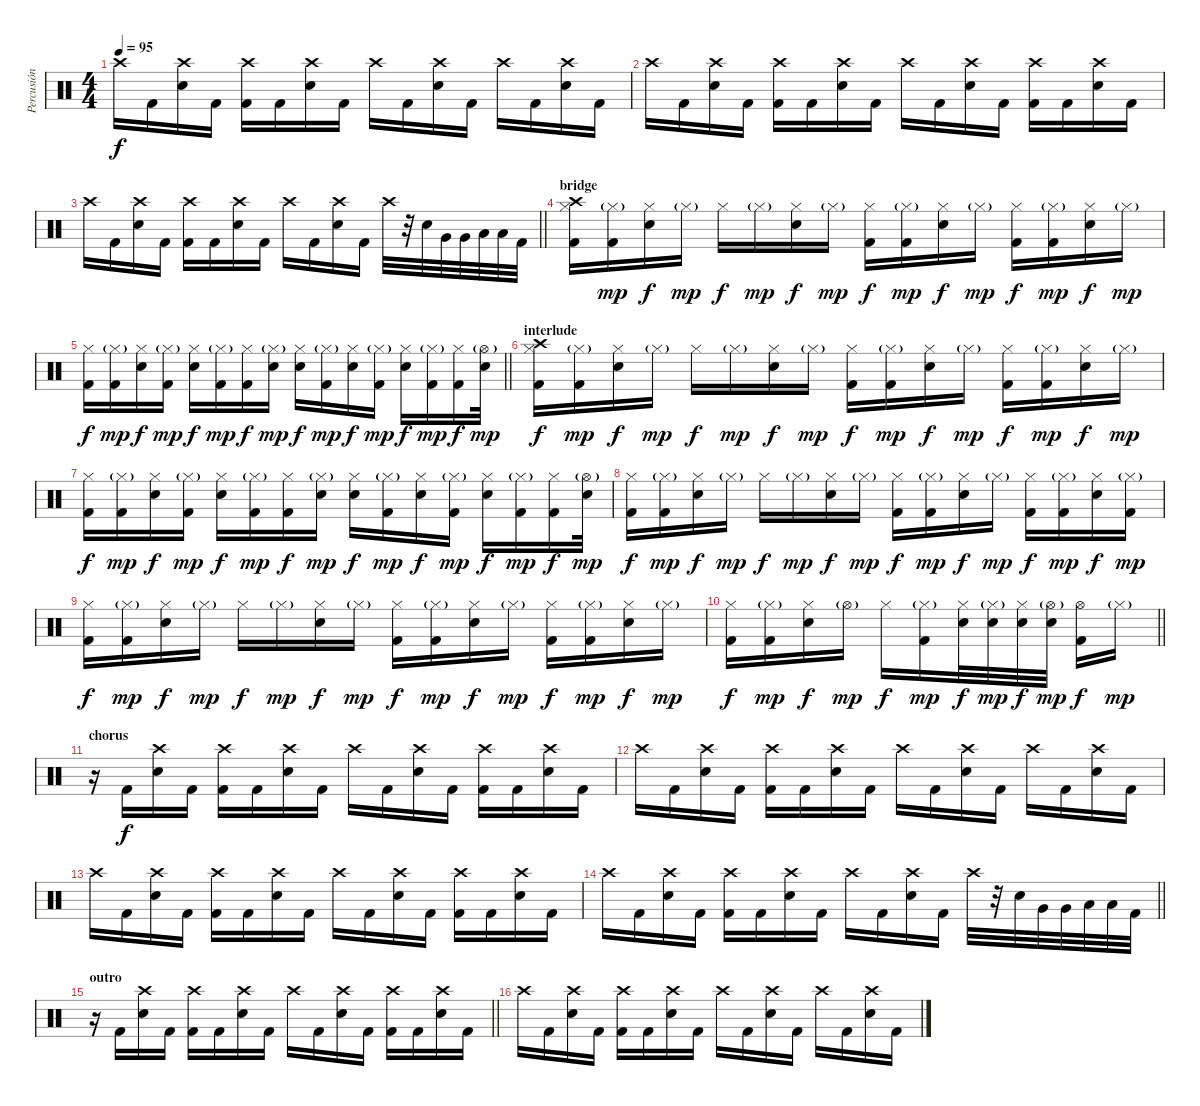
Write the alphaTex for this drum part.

\track ("Percusión" "Percusión") {instrument percussion}
\staff {score}
\articulation defaults
\ts (4 4)
\tempo 95
\clef neutral
\ks c "Crash high (hit)".16{dy f} "Kick (hit) 2".16
("Crash high (hit)" "Electric Snare (hit)").16 "Kick (hit) 2".16 ("Crash high (hit)" "Kick (hit) 2").16 "Kick (hit) 2".16 ("Crash high (hit)" "Electric Snare (hit)").16 "Kick (hit) 2".16 "Crash high (hit)".16 "Kick (hit) 2".16 ("Crash high (hit)" "Electric Snare (hit)").16 "Kick (hit) 2".16 "Crash high (hit)".16 "Kick (hit) 2".16 ("Crash high (hit)" "Electric Snare (hit)").16 "Kick (hit) 2".16 |
"Crash high (hit)".16 "Kick (hit) 2".16 ("Crash high (hit)" "Electric Snare (hit)").16 "Kick (hit) 2".16 ("Crash high (hit)" "Kick (hit) 2").16 "Kick (hit) 2".16 ("Crash high (hit)" "Electric Snare (hit)").16 "Kick (hit) 2".16 "Crash high (hit)".16 "Kick (hit) 2".16 ("Crash high (hit)" "Electric Snare (hit)").16 "Kick (hit) 2".16 ("Crash high (hit)" "Kick (hit) 2").16 "Kick (hit) 2".16 ("Crash high (hit)" "Electric Snare (hit)").16 "Kick (hit) 2".16 |
\barLineRight lightlight "Crash high (hit)".16 "Kick (hit) 2".16
("Crash high (hit)" "Electric Snare (hit)").16 "Kick (hit) 2".16 ("Crash high (hit)" "Kick (hit) 2").16 "Kick (hit) 2".16 ("Crash high (hit)" "Electric Snare (hit)").16 "Kick (hit) 2".16 "Crash high (hit)".16 "Kick (hit) 2".16 ("Crash high (hit)" "Electric Snare (hit)").16 "Kick (hit) 2".16 "Crash high (hit)".32 r.32 "Electric Snare (hit)".32 "Very Low Tom (hit)".32 "Very Low Tom (hit)".32 "Low Floor Tom (hit)".32 "Low Floor Tom (hit)".32 "Kick (hit) 2".32 |
\section ("" "bridge")
("Crash high (hit)" "Hi-Hat (closed)" "Kick (hit) 2").16 ("Hi-Hat (closed)"{g} "Kick (hit) 2").16{dy mp} ("Hi-Hat (closed)" "Electric Snare (hit)").16{dy f} "Hi-Hat (closed)"{g}.16{dy mp} "Hi-Hat (closed)".16{dy f} "Hi-Hat (closed)"{g}.16{dy mp} ("Hi-Hat (closed)" "Electric Snare (hit)").16{dy f} "Hi-Hat (closed)"{g}.16{dy mp} ("Hi-Hat (closed)" "Kick (hit) 2").16{dy f} ("Hi-Hat (closed)"{g} "Kick (hit) 2").16{dy mp} ("Hi-Hat (closed)" "Electric Snare (hit)").16{dy f} "Hi-Hat (closed)"{g}.16{dy mp} ("Hi-Hat (closed)" "Kick (hit) 2").16{dy f} ("Hi-Hat (closed)"{g} "Kick (hit) 2").16{dy mp} ("Hi-Hat (closed)" "Electric Snare (hit)").16{dy f} "Hi-Hat (closed)"{g}.16{dy mp} |
\barLineRight lightlight
("Hi-Hat (closed)" "Kick (hit) 2").16{dy f} ("Hi-Hat (closed)"{g} "Kick (hit) 2").16{dy mp} ("Hi-Hat (closed)" "Electric Snare (hit)").16{dy f} ("Hi-Hat (closed)"{g} "Kick (hit) 2").16{dy mp} ("Hi-Hat (closed)" "Electric Snare (hit)").16{dy f} ("Hi-Hat (closed)"{g} "Kick (hit) 2").16{dy mp} ("Hi-Hat (closed)" "Kick (hit) 2").16{dy f} ("Hi-Hat (closed)"{g} "Electric Snare (hit)").16{dy mp} ("Hi-Hat (closed)" "Electric Snare (hit)").16{dy f} ("Hi-Hat (closed)"{g} "Kick (hit) 2").16{dy mp} ("Hi-Hat (closed)" "Electric Snare (hit)").16{dy f} ("Hi-Hat (closed)"{g} "Kick (hit) 2").16{dy mp} ("Hi-Hat (closed)" "Electric Snare (hit)").16{dy f} ("Hi-Hat (closed)"{g} "Kick (hit) 2").16{dy mp} ("Hi-Hat (closed)" "Kick (hit) 2").16{dy f} ("Hi-Hat (open)"{g} "Electric Snare (hit)").32{dy mp} |
\section ("" "interlude")
("Crash high (hit)" "Hi-Hat (closed)" "Kick (hit) 2").16{dy f} ("Hi-Hat (closed)"{g} "Kick (hit) 2").16{dy mp} ("Hi-Hat (closed)" "Electric Snare (hit)").16{dy f} "Hi-Hat (closed)"{g}.16{dy mp} "Hi-Hat (closed)".16{dy f} "Hi-Hat (closed)"{g}.16{dy mp} ("Hi-Hat (closed)" "Electric Snare (hit)").16{dy f} "Hi-Hat (closed)"{g}.16{dy mp} ("Hi-Hat (closed)" "Kick (hit) 2").16{dy f} ("Hi-Hat (closed)"{g} "Kick (hit) 2").16{dy mp} ("Hi-Hat (closed)" "Electric Snare (hit)").16{dy f} "Hi-Hat (closed)"{g}.16{dy mp} ("Hi-Hat (closed)" "Kick (hit) 2").16{dy f} ("Hi-Hat (closed)"{g} "Kick (hit) 2").16{dy mp} ("Hi-Hat (closed)" "Electric Snare (hit)").16{dy f} "Hi-Hat (closed)"{g}.16{dy mp} |
("Hi-Hat (closed)" "Kick (hit) 2").16{dy f} ("Hi-Hat (closed)"{g} "Kick (hit) 2").16{dy mp} ("Hi-Hat (closed)" "Electric Snare (hit)").16{dy f} ("Hi-Hat (closed)"{g} "Kick (hit) 2").16{dy mp} ("Hi-Hat (closed)" "Electric Snare (hit)").16{dy f} ("Hi-Hat (closed)"{g} "Kick (hit) 2").16{dy mp} ("Hi-Hat (closed)" "Kick (hit) 2").16{dy f} ("Hi-Hat (closed)"{g} "Electric Snare (hit)").16{dy mp} ("Hi-Hat (closed)" "Electric Snare (hit)").16{dy f} ("Hi-Hat (closed)"{g} "Kick (hit) 2").16{dy mp} ("Hi-Hat (closed)" "Electric Snare (hit)").16{dy f} ("Hi-Hat (closed)"{g} "Kick (hit) 2").16{dy mp} ("Hi-Hat (closed)" "Electric Snare (hit)").16{dy f} ("Hi-Hat (closed)"{g} "Kick (hit) 2").16{dy mp} ("Hi-Hat (closed)" "Kick (hit) 2").16{dy f} ("Hi-Hat (open)"{g} "Electric Snare (hit)").32{dy mp} |
("Hi-Hat (closed)" "Kick (hit) 2").16{dy f} ("Hi-Hat (closed)"{g} "Kick (hit) 2").16{dy mp} ("Hi-Hat (closed)" "Electric Snare (hit)").16{dy f} "Hi-Hat (closed)"{g}.16{dy mp} "Hi-Hat (closed)".16{dy f} "Hi-Hat (closed)"{g}.16{dy mp} ("Hi-Hat (closed)" "Electric Snare (hit)").16{dy f} "Hi-Hat (closed)"{g}.16{dy mp} ("Hi-Hat (closed)" "Kick (hit) 2").16{dy f} ("Hi-Hat (closed)"{g} "Kick (hit) 2").16{dy mp} ("Hi-Hat (closed)" "Electric Snare (hit)").16{dy f} "Hi-Hat (closed)"{g}.16{dy mp} ("Hi-Hat (closed)" "Kick (hit) 2").16{dy f} ("Hi-Hat (closed)"{g} "Kick (hit) 2").16{dy mp} ("Hi-Hat (closed)" "Electric Snare (hit)").16{dy f} ("Hi-Hat (closed)"{g} "Kick (hit) 2").16{dy mp} |
("Hi-Hat (closed)" "Kick (hit) 2").16{dy f} ("Hi-Hat (closed)"{g} "Kick (hit) 2").16{dy mp} ("Hi-Hat (closed)" "Electric Snare (hit)").16{dy f} "Hi-Hat (closed)"{g}.16{dy mp} "Hi-Hat (closed)".16{dy f} "Hi-Hat (closed)"{g}.16{dy mp} ("Hi-Hat (closed)" "Electric Snare (hit)").16{dy f} "Hi-Hat (closed)"{g}.16{dy mp} ("Hi-Hat (closed)" "Kick (hit) 2").16{dy f} ("Hi-Hat (closed)"{g} "Kick (hit) 2").16{dy mp} ("Hi-Hat (closed)" "Electric Snare (hit)").16{dy f} "Hi-Hat (closed)"{g}.16{dy mp} ("Hi-Hat (closed)" "Kick (hit) 2").16{dy f} ("Hi-Hat (closed)"{g} "Kick (hit) 2").16{dy mp} ("Hi-Hat (closed)" "Electric Snare (hit)").16{dy f} "Hi-Hat (closed)"{g}.16{dy mp} |
\barLineRight lightlight
("Hi-Hat (closed)" "Kick (hit) 2").16{dy f} ("Hi-Hat (closed)"{g} "Kick (hit) 2").16{dy mp} ("Hi-Hat (closed)" "Electric Snare (hit)").16{dy f} "Hi-Hat (open)"{g}.16{dy mp} "Hi-Hat (closed)".16{dy f} ("Hi-Hat (closed)"{g} "Kick (hit) 2").16{dy mp} ("Hi-Hat (closed)" "Electric Snare (hit)").32{dy f} ("Hi-Hat (closed)"{g} "Electric Snare (hit)").32{dy mp} ("Hi-Hat (closed)" "Electric Snare (hit)").32{dy f} ("Hi-Hat (open)"{g} "Electric Snare (hit)").32{dy mp} ("Hi-Hat (open)" "Kick (hit) 2").16{dy f} "Hi-Hat (closed)"{g}.16{dy mp} |
\section ("" "chorus")
r.16 "Kick (hit) 2".16{dy f} ("Crash high (hit)" "Electric Snare (hit)").16 "Kick (hit) 2".16 ("Crash high (hit)" "Kick (hit) 2").16 "Kick (hit) 2".16 ("Crash high (hit)" "Electric Snare (hit)").16 "Kick (hit) 2".16 "Crash high (hit)".16 "Kick (hit) 2".16 ("Crash high (hit)" "Electric Snare (hit)").16 "Kick (hit) 2".16 ("Crash high (hit)" "Kick (hit) 2").16 "Kick (hit) 2".16 ("Crash high (hit)" "Electric Snare (hit)").16 "Kick (hit) 2".16 |
"Crash high (hit)".16 "Kick (hit) 2".16 ("Crash high (hit)" "Electric Snare (hit)").16 "Kick (hit) 2".16 ("Crash high (hit)" "Kick (hit) 2").16 "Kick (hit) 2".16 ("Crash high (hit)" "Electric Snare (hit)").16 "Kick (hit) 2".16 "Crash high (hit)".16 "Kick (hit) 2".16 ("Crash high (hit)" "Electric Snare (hit)").16 "Kick (hit) 2".16 "Crash high (hit)".16 "Kick (hit) 2".16 ("Crash high (hit)" "Electric Snare (hit)").16 "Kick (hit) 2".16 |
"Crash high (hit)".16 "Kick (hit) 2".16 ("Crash high (hit)" "Electric Snare (hit)").16 "Kick (hit) 2".16 ("Crash high (hit)" "Kick (hit) 2").16 "Kick (hit) 2".16 ("Crash high (hit)" "Electric Snare (hit)").16 "Kick (hit) 2".16 "Crash high (hit)".16 "Kick (hit) 2".16 ("Crash high (hit)" "Electric Snare (hit)").16 "Kick (hit) 2".16 ("Crash high (hit)" "Kick (hit) 2").16 "Kick (hit) 2".16 ("Crash high (hit)" "Electric Snare (hit)").16 "Kick (hit) 2".16 |
\barLineRight lightlight "Crash high (hit)".16 "Kick (hit) 2".16
("Crash high (hit)" "Electric Snare (hit)").16 "Kick (hit) 2".16 ("Crash high (hit)" "Kick (hit) 2").16 "Kick (hit) 2".16 ("Crash high (hit)" "Electric Snare (hit)").16 "Kick (hit) 2".16 "Crash high (hit)".16 "Kick (hit) 2".16 ("Crash high (hit)" "Electric Snare (hit)").16 "Kick (hit) 2".16 "Crash high (hit)".32 r.32 "Electric Snare (hit)".32 "Very Low Tom (hit)".32 "Very Low Tom (hit)".32 "Low Floor Tom (hit)".32 "Low Floor Tom (hit)".32 "Kick (hit) 2".32 |
\section ("" "outro")
\barLineRight lightlight
r.16 "Kick (hit) 2".16 ("Crash high (hit)" "Electric Snare (hit)").16 "Kick (hit) 2".16 ("Crash high (hit)" "Kick (hit) 2").16 "Kick (hit) 2".16 ("Crash high (hit)" "Electric Snare (hit)").16 "Kick (hit) 2".16 "Crash high (hit)".16 "Kick (hit) 2".16 ("Crash high (hit)" "Electric Snare (hit)").16 "Kick (hit) 2".16 ("Crash high (hit)" "Kick (hit) 2").16 "Kick (hit) 2".16 ("Crash high (hit)" "Electric Snare (hit)").16 "Kick (hit) 2".16 |
"Crash high (hit)".16 "Kick (hit) 2".16 ("Crash high (hit)" "Electric Snare (hit)").16 "Kick (hit) 2".16 ("Crash high (hit)" "Kick (hit) 2").16 "Kick (hit) 2".16 ("Crash high (hit)" "Electric Snare (hit)").16 "Kick (hit) 2".16 "Crash high (hit)".16 "Kick (hit) 2".16 ("Crash high (hit)" "Electric Snare (hit)").16 "Kick (hit) 2".16 "Crash high (hit)".16 "Kick (hit) 2".16 ("Crash high (hit)" "Electric Snare (hit)").16 "Kick (hit) 2".16
